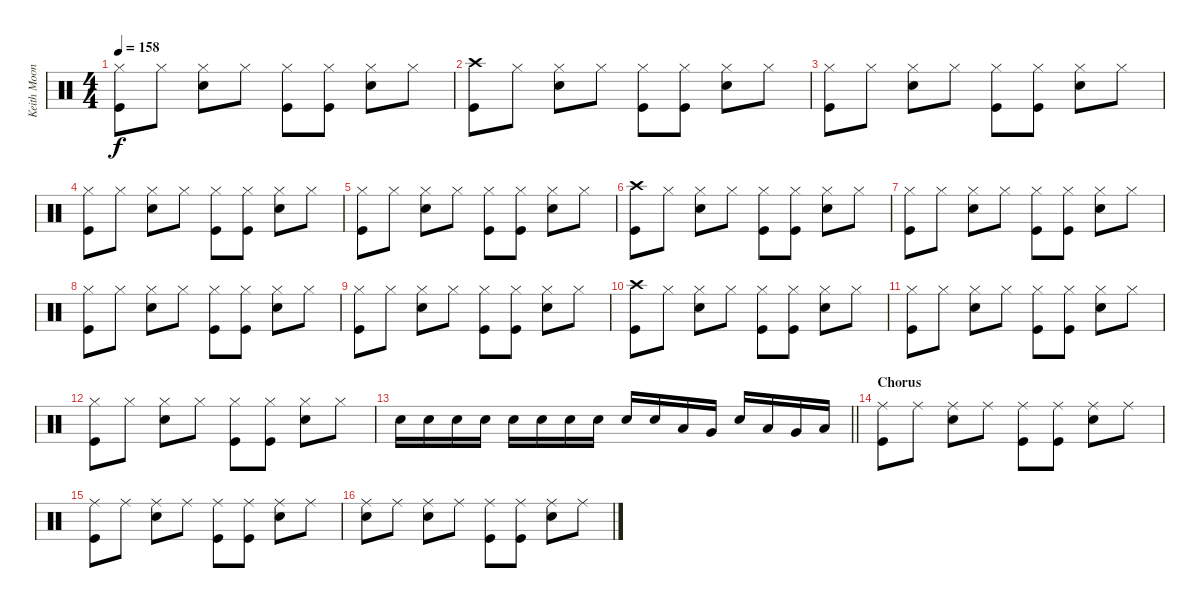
\track ("Keith Moon" "Keith Moon") {instrument percussion}
\staff {score}
\articulation defaults
\ts (4 4)
\tempo 158
\clef neutral
\ks c
("Hi-Hat (closed)" "Kick (hit)").8{dy f} "Hi-Hat (closed)".8 ("Hi-Hat (closed)" "Snare (hit) 2").8 "Hi-Hat (closed)".8 ("Hi-Hat (closed)" "Kick (hit)").8 ("Hi-Hat (closed)" "Kick (hit)").8 ("Hi-Hat (closed)" "Snare (hit) 2").8 "Hi-Hat (closed)".8 |
("Crash high (hit)" "Kick (hit)").8 "Hi-Hat (closed)".8 ("Hi-Hat (closed)" "Snare (hit) 2").8 "Hi-Hat (closed)".8 ("Hi-Hat (closed)" "Kick (hit)").8 ("Hi-Hat (closed)" "Kick (hit)").8 ("Hi-Hat (closed)" "Snare (hit) 2").8 "Hi-Hat (closed)".8 |
("Hi-Hat (closed)" "Kick (hit)").8 "Hi-Hat (closed)".8 ("Hi-Hat (closed)" "Snare (hit) 2").8 "Hi-Hat (closed)".8 ("Hi-Hat (closed)" "Kick (hit)").8 ("Hi-Hat (closed)" "Kick (hit)").8 ("Hi-Hat (closed)" "Snare (hit) 2").8 "Hi-Hat (closed)".8 |
("Hi-Hat (closed)" "Kick (hit)").8 "Hi-Hat (closed)".8 ("Hi-Hat (closed)" "Snare (hit) 2").8 "Hi-Hat (closed)".8 ("Hi-Hat (closed)" "Kick (hit)").8 ("Hi-Hat (closed)" "Kick (hit)").8 ("Hi-Hat (closed)" "Snare (hit) 2").8 "Hi-Hat (closed)".8 |
("Hi-Hat (closed)" "Kick (hit)").8 "Hi-Hat (closed)".8 ("Hi-Hat (closed)" "Snare (hit) 2").8 "Hi-Hat (closed)".8 ("Hi-Hat (closed)" "Kick (hit)").8 ("Hi-Hat (closed)" "Kick (hit)").8 ("Hi-Hat (closed)" "Snare (hit) 2").8 "Hi-Hat (closed)".8 |
("Crash high (hit)" "Kick (hit)").8 "Hi-Hat (closed)".8 ("Hi-Hat (closed)" "Snare (hit) 2").8 "Hi-Hat (closed)".8 ("Hi-Hat (closed)" "Kick (hit)").8 ("Hi-Hat (closed)" "Kick (hit)").8 ("Hi-Hat (closed)" "Snare (hit) 2").8 "Hi-Hat (closed)".8 |
("Hi-Hat (closed)" "Kick (hit)").8 "Hi-Hat (closed)".8 ("Hi-Hat (closed)" "Snare (hit) 2").8 "Hi-Hat (closed)".8 ("Hi-Hat (closed)" "Kick (hit)").8 ("Hi-Hat (closed)" "Kick (hit)").8 ("Hi-Hat (closed)" "Snare (hit) 2").8 "Hi-Hat (closed)".8 |
("Hi-Hat (closed)" "Kick (hit)").8 "Hi-Hat (closed)".8 ("Hi-Hat (closed)" "Snare (hit) 2").8 "Hi-Hat (closed)".8 ("Hi-Hat (closed)" "Kick (hit)").8 ("Hi-Hat (closed)" "Kick (hit)").8 ("Hi-Hat (closed)" "Snare (hit) 2").8 "Hi-Hat (closed)".8 |
("Hi-Hat (closed)" "Kick (hit)").8 "Hi-Hat (closed)".8 ("Hi-Hat (closed)" "Snare (hit) 2").8 "Hi-Hat (closed)".8 ("Hi-Hat (closed)" "Kick (hit)").8 ("Hi-Hat (closed)" "Kick (hit)").8 ("Hi-Hat (closed)" "Snare (hit) 2").8 "Hi-Hat (closed)".8 |
("Crash high (hit)" "Kick (hit)").8 "Hi-Hat (closed)".8 ("Hi-Hat (closed)" "Snare (hit) 2").8 "Hi-Hat (closed)".8 ("Hi-Hat (closed)" "Kick (hit)").8 ("Hi-Hat (closed)" "Kick (hit)").8 ("Hi-Hat (closed)" "Snare (hit) 2").8 "Hi-Hat (closed)".8 |
("Hi-Hat (closed)" "Kick (hit)").8 "Hi-Hat (closed)".8 ("Hi-Hat (closed)" "Snare (hit) 2").8 "Hi-Hat (closed)".8 ("Hi-Hat (closed)" "Kick (hit)").8 ("Hi-Hat (closed)" "Kick (hit)").8 ("Hi-Hat (closed)" "Snare (hit) 2").8 "Hi-Hat (closed)".8 |
("Hi-Hat (closed)" "Kick (hit)").8 "Hi-Hat (closed)".8 ("Hi-Hat (closed)" "Snare (hit) 2").8 "Hi-Hat (closed)".8 ("Hi-Hat (closed)" "Kick (hit)").8 ("Hi-Hat (closed)" "Kick (hit)").8 ("Hi-Hat (closed)" "Snare (hit) 2").8 "Hi-Hat (closed)".8 |
\barLineRight lightlight "Snare (hit) 2".16 "Snare (hit) 2".16 "Snare (hit) 2".16 "Snare (hit) 2".16 "Snare (hit) 2".16 "Snare (hit) 2".16 "Snare (hit) 2".16 "Snare (hit) 2".16 "Snare (hit) 2".16 "Snare (hit) 2".16 "Low Tom (hit)".16 "Very Low Tom (hit)".16 "Snare (hit) 2".16 "Low Tom (hit)".16 "Very Low Tom (hit)".16 "Low Floor Tom (hit)".16
|
\section ("" "Chorus")
("Ride (middle)" "Kick (hit)").8 "Ride (middle)".8 ("Ride (middle)" "Snare (hit) 2").8 "Ride (middle)".8 ("Ride (middle)" "Kick (hit)").8 ("Ride (middle)" "Kick (hit)").8 ("Ride (middle)" "Snare (hit) 2").8 "Ride (middle)".8 |
("Ride (middle)" "Kick (hit)").8 "Ride (middle)".8 ("Ride (middle)" "Snare (hit) 2").8 "Ride (middle)".8 ("Ride (middle)" "Kick (hit)").8 ("Ride (middle)" "Kick (hit)").8 ("Ride (middle)" "Snare (hit) 2").8 "Ride (middle)".8 |
("Ride (middle)" "Snare (hit) 2").8 "Ride (middle)".8 ("Ride (middle)" "Snare (hit) 2").8 "Ride (middle)".8 ("Ride (middle)" "Kick (hit)").8 ("Ride (middle)" "Kick (hit)").8 ("Ride (middle)" "Snare (hit) 2").8 "Ride (middle)".8
